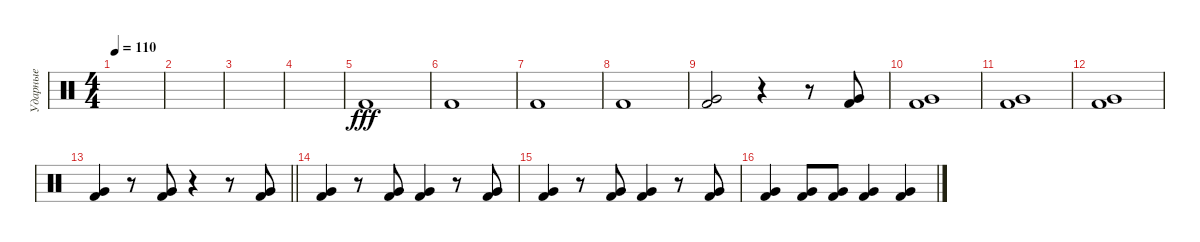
\track ("Ударные" "Ударные") {mute instrument percussion}
\staff {score}
\articulation defaults
\ts (4 4)
\section ("" "")
\tempo 110
\clef neutral
\ks c
|
|
|
|
"Kick (hit) 2".1{dy fff} |
"Kick (hit) 2".1 |
"Kick (hit) 2".1 |
"Kick (hit) 2".1 |
("Very Low Tom (hit)" "Kick (hit) 2").2 r.4 r.8 ("Very Low Tom (hit)" "Kick (hit) 2").8 |
("Very Low Tom (hit)" "Kick (hit) 2").1 |
("Very Low Tom (hit)" "Kick (hit) 2").1 |
("Very Low Tom (hit)" "Kick (hit) 2").1 |
\barLineRight lightlight
("Very Low Tom (hit)" "Kick (hit) 2").4 r.8 ("Very Low Tom (hit)" "Kick (hit) 2").8 r.4 r.8 ("Very Low Tom (hit)" "Kick (hit) 2").8 |
("Very Low Tom (hit)" "Kick (hit) 2").4 r.8 ("Very Low Tom (hit)" "Kick (hit) 2").8 ("Very Low Tom (hit)" "Kick (hit) 2").4 r.8 ("Very Low Tom (hit)" "Kick (hit) 2").8 |
("Very Low Tom (hit)" "Kick (hit) 2").4 r.8 ("Very Low Tom (hit)" "Kick (hit) 2").8 ("Very Low Tom (hit)" "Kick (hit) 2").4 r.8 ("Very Low Tom (hit)" "Kick (hit) 2").8 |
("Very Low Tom (hit)" "Kick (hit) 2").4 ("Very Low Tom (hit)" "Kick (hit) 2").8 ("Very Low Tom (hit)" "Kick (hit) 2").8 ("Very Low Tom (hit)" "Kick (hit) 2").4 ("Very Low Tom (hit)" "Kick (hit) 2").4
